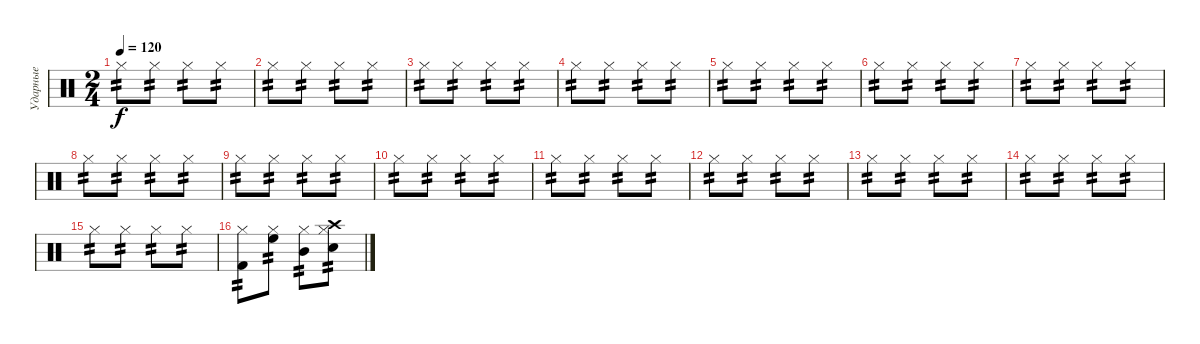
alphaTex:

\track ("Ударные" "Ударные") {instrument percussion}
\staff {score}
\articulation defaults
\ts (2 4)
\tempo 120
\clef neutral
\ks c "Hi-Hat (closed)".8{tp 2 dy f} "Hi-Hat (closed)".8{tp 2} "Hi-Hat (closed)".8{tp 2} "Hi-Hat (closed)".8{tp 2}
|
"Hi-Hat (closed)".8{tp 2} "Hi-Hat (closed)".8{tp 2} "Hi-Hat (closed)".8{tp 2} "Hi-Hat (closed)".8{tp 2} |
"Hi-Hat (closed)".8{tp 2} "Hi-Hat (closed)".8{tp 2} "Hi-Hat (closed)".8{tp 2} "Hi-Hat (closed)".8{tp 2} |
"Hi-Hat (closed)".8{tp 2} "Hi-Hat (closed)".8{tp 2} "Hi-Hat (closed)".8{tp 2} "Hi-Hat (closed)".8{tp 2} |
"Hi-Hat (closed)".8{tp 2} "Hi-Hat (closed)".8{tp 2} "Hi-Hat (closed)".8{tp 2} "Hi-Hat (closed)".8{tp 2} |
"Hi-Hat (closed)".8{tp 2} "Hi-Hat (closed)".8{tp 2} "Hi-Hat (closed)".8{tp 2} "Hi-Hat (closed)".8{tp 2} |
"Hi-Hat (closed)".8{tp 2} "Hi-Hat (closed)".8{tp 2} "Hi-Hat (closed)".8{tp 2} "Hi-Hat (closed)".8{tp 2} |
"Hi-Hat (closed)".8{tp 2} "Hi-Hat (closed)".8{tp 2} "Hi-Hat (closed)".8{tp 2} "Hi-Hat (closed)".8{tp 2} |
"Hi-Hat (closed)".8{tp 2} "Hi-Hat (closed)".8{tp 2} "Hi-Hat (closed)".8{tp 2} "Hi-Hat (closed)".8{tp 2} |
"Hi-Hat (closed)".8{tp 2} "Hi-Hat (closed)".8{tp 2} "Hi-Hat (closed)".8{tp 2} "Hi-Hat (closed)".8{tp 2} |
"Hi-Hat (closed)".8{tp 2} "Hi-Hat (closed)".8{tp 2} "Hi-Hat (closed)".8{tp 2} "Hi-Hat (closed)".8{tp 2} |
"Hi-Hat (closed)".8{tp 2} "Hi-Hat (closed)".8{tp 2} "Hi-Hat (closed)".8{tp 2} "Hi-Hat (closed)".8{tp 2} |
"Hi-Hat (closed)".8{tp 2} "Hi-Hat (closed)".8{tp 2} "Hi-Hat (closed)".8{tp 2} "Hi-Hat (closed)".8{tp 2} |
"Hi-Hat (closed)".8{tp 2} "Hi-Hat (closed)".8{tp 2} "Hi-Hat (closed)".8{tp 2} "Hi-Hat (closed)".8{tp 2} |
"Hi-Hat (closed)".8{tp 2} "Hi-Hat (closed)".8{tp 2} "Hi-Hat (closed)".8{tp 2} "Hi-Hat (closed)".8{tp 2} |
("Kick (hit) 2" "Hi-Hat (closed)").8{tp 2} ("High Floor Tom (hit)" "Hi-Hat (closed)").8{tp 2} ("Mid Tom (hit)" "Hi-Hat (closed)").8{tp 2} ("Snare (hit) 2" "Crash high (hit)" "Hi-Hat (closed)").8{tp 2}
